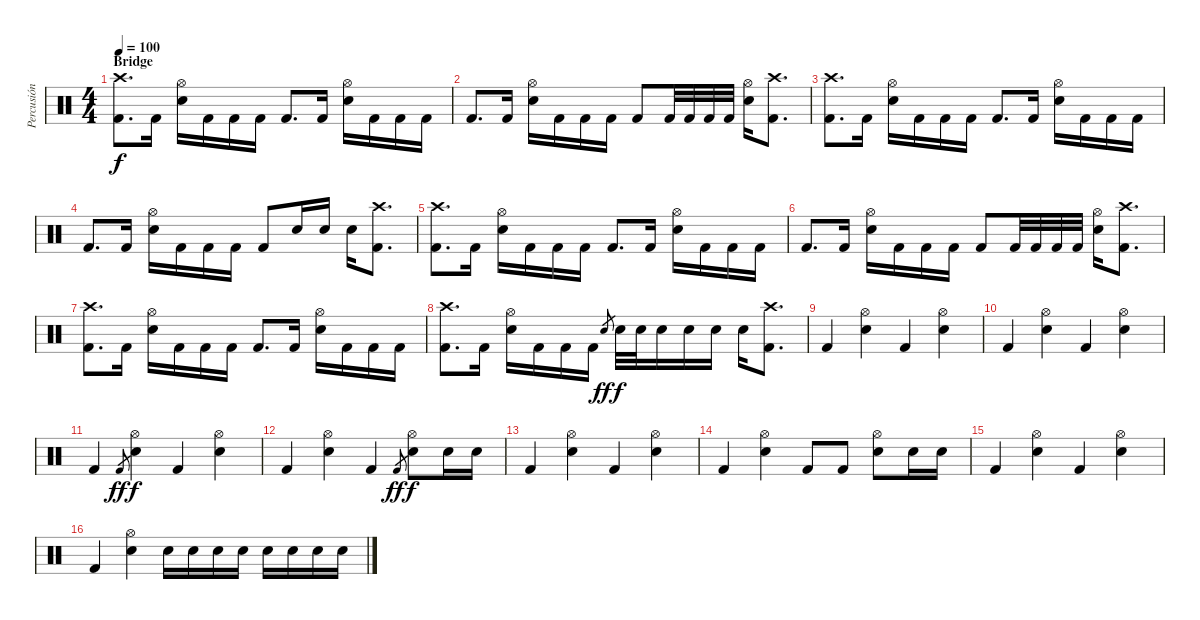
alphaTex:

\track ("Percusión" "Percusión") {instrument percussion}
\staff {score}
\articulation defaults
\ts (4 4)
\section ("" "Bridge")
\tempo 100
\clef neutral
\ks c
("Crash high (hit)" "Kick (hit) 2").8{d dy f} "Kick (hit) 2".16 ("Hi-Hat (open)" "Snare (hit) 2").16 "Kick (hit) 2".16 "Kick (hit) 2".16 "Kick (hit) 2".16 "Kick (hit) 2".8{d} "Kick (hit) 2".16 ("Hi-Hat (open)" "Snare (hit) 2").16 "Kick (hit) 2".16 "Kick (hit) 2".16 "Kick (hit) 2".16 |
"Kick (hit) 2".8{d} "Kick (hit) 2".16 ("Hi-Hat (open)" "Snare (hit) 2").16 "Kick (hit) 2".16 "Kick (hit) 2".16 "Kick (hit) 2".16 "Kick (hit) 2".8 "Kick (hit) 2".32 "Kick (hit) 2".32 "Kick (hit) 2".32 "Kick (hit) 2".32 ("Hi-Hat (open)" "Snare (hit) 2").16 ("Crash high (hit)" "Kick (hit) 2").8{d} |
("Crash high (hit)" "Kick (hit) 2").8{d} "Kick (hit) 2".16 ("Hi-Hat (open)" "Snare (hit) 2").16 "Kick (hit) 2".16 "Kick (hit) 2".16 "Kick (hit) 2".16 "Kick (hit) 2".8{d} "Kick (hit) 2".16 ("Hi-Hat (open)" "Snare (hit) 2").16 "Kick (hit) 2".16 "Kick (hit) 2".16 "Kick (hit) 2".16 |
"Kick (hit) 2".8{d} "Kick (hit) 2".16 ("Hi-Hat (open)" "Snare (hit) 2").16 "Kick (hit) 2".16 "Kick (hit) 2".16 "Kick (hit) 2".16 "Kick (hit) 2".8 "Snare (hit) 2".16 "Snare (hit) 2".16 "Snare (hit) 2".16 ("Crash high (hit)" "Kick (hit) 2").8{d} |
("Crash high (hit)" "Kick (hit) 2").8{d} "Kick (hit) 2".16 ("Hi-Hat (open)" "Snare (hit) 2").16 "Kick (hit) 2".16 "Kick (hit) 2".16 "Kick (hit) 2".16 "Kick (hit) 2".8{d} "Kick (hit) 2".16 ("Hi-Hat (open)" "Snare (hit) 2").16 "Kick (hit) 2".16 "Kick (hit) 2".16 "Kick (hit) 2".16 |
"Kick (hit) 2".8{d} "Kick (hit) 2".16 ("Hi-Hat (open)" "Snare (hit) 2").16 "Kick (hit) 2".16 "Kick (hit) 2".16 "Kick (hit) 2".16 "Kick (hit) 2".8 "Kick (hit) 2".32 "Kick (hit) 2".32 "Kick (hit) 2".32 "Kick (hit) 2".32 ("Hi-Hat (open)" "Snare (hit) 2").16 ("Crash high (hit)" "Kick (hit) 2").8{d} |
("Crash high (hit)" "Kick (hit) 2").8{d} "Kick (hit) 2".16 ("Hi-Hat (open)" "Snare (hit) 2").16 "Kick (hit) 2".16 "Kick (hit) 2".16 "Kick (hit) 2".16 "Kick (hit) 2".8{d} "Kick (hit) 2".16 ("Hi-Hat (open)" "Snare (hit) 2").16 "Kick (hit) 2".16 "Kick (hit) 2".16 "Kick (hit) 2".16 |
("Crash high (hit)" "Kick (hit) 2").8{d} "Kick (hit) 2".16 ("Hi-Hat (open)" "Snare (hit) 2").16 "Kick (hit) 2".16 "Kick (hit) 2".16 "Kick (hit) 2".16 "Snare (hit) 2".8{gr dy ff} "Snare (hit) 2".32{dy f} "Snare (hit) 2".32 "Snare (hit) 2".16 "Snare (hit) 2".16 "Snare (hit) 2".16 "Snare (hit) 2".16 ("Crash high (hit)" "Kick (hit) 2").8{d} |
"Kick (hit) 2".4 ("Hi-Hat (open)" "Snare (hit) 2").4 "Kick (hit) 2".4 ("Hi-Hat (open)" "Snare (hit) 2").4 |
"Kick (hit) 2".4 ("Hi-Hat (open)" "Snare (hit) 2").4 "Kick (hit) 2".4 ("Hi-Hat (open)" "Snare (hit) 2").4 |
"Kick (hit) 2".4 "Kick (hit) 2".8{gr dy ff} ("Hi-Hat (open)" "Snare (hit) 2").4{dy f} "Kick (hit) 2".4 ("Hi-Hat (open)" "Snare (hit) 2").4 |
"Kick (hit) 2".4 ("Hi-Hat (open)" "Snare (hit) 2").4 "Kick (hit) 2".4 "Kick (hit) 2".8{gr dy ff} ("Hi-Hat (open)" "Snare (hit) 2").8{dy f} "Snare (hit) 2".16 "Snare (hit) 2".16 |
"Kick (hit) 2".4 ("Hi-Hat (open)" "Snare (hit) 2").4 "Kick (hit) 2".4 ("Hi-Hat (open)" "Snare (hit) 2").4 |
"Kick (hit) 2".4 ("Hi-Hat (open)" "Snare (hit) 2").4 "Kick (hit) 2".8 "Kick (hit) 2".8 ("Hi-Hat (open)" "Snare (hit) 2").8 "Snare (hit) 2".16 "Snare (hit) 2".16 |
"Kick (hit) 2".4 ("Hi-Hat (open)" "Snare (hit) 2").4 "Kick (hit) 2".4 ("Hi-Hat (open)" "Snare (hit) 2").4 |
"Kick (hit) 2".4 ("Hi-Hat (open)" "Snare (hit) 2").4 "Snare (hit) 2".16 "Snare (hit) 2".16 "Snare (hit) 2".16 "Snare (hit) 2".16 "Snare (hit) 2".16 "Snare (hit) 2".16 "Snare (hit) 2".16 "Snare (hit) 2".16
